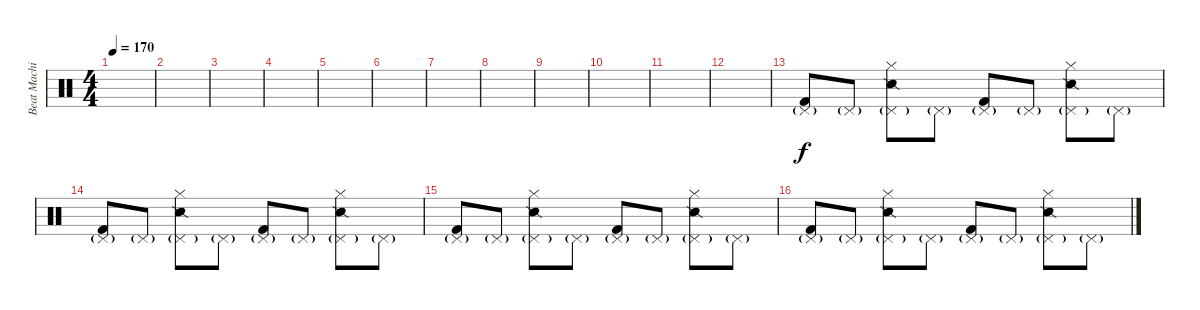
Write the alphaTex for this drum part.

\track ("Beat Machine" "Beat Machi") {instrument percussion}
\staff {score}
\articulation defaults
\ts (4 4)
\tempo 170
\clef neutral
\ks c
|
|
|
|
|
|
|
|
|
|
|
|
("Pedal Hi-Hat (hit)"{g} "Kick (hit) 2").8 "Pedal Hi-Hat (hit)"{g}.8 ("Pedal Hi-Hat (hit)"{g} "Snare (side stick) 2" "Hi-Hat (closed)").8 "Pedal Hi-Hat (hit)"{g}.8 ("Pedal Hi-Hat (hit)"{g} "Kick (hit) 2").8 "Pedal Hi-Hat (hit)"{g}.8 ("Pedal Hi-Hat (hit)"{g} "Snare (side stick) 2" "Hi-Hat (closed)").8 "Pedal Hi-Hat (hit)"{g}.8 |
("Pedal Hi-Hat (hit)"{g} "Kick (hit) 2").8 "Pedal Hi-Hat (hit)"{g}.8 ("Pedal Hi-Hat (hit)"{g} "Snare (side stick) 2" "Hi-Hat (closed)").8 "Pedal Hi-Hat (hit)"{g}.8 ("Pedal Hi-Hat (hit)"{g} "Kick (hit) 2").8 "Pedal Hi-Hat (hit)"{g}.8 ("Pedal Hi-Hat (hit)"{g} "Snare (side stick) 2" "Hi-Hat (closed)").8 "Pedal Hi-Hat (hit)"{g}.8 |
("Pedal Hi-Hat (hit)"{g} "Kick (hit) 2").8 "Pedal Hi-Hat (hit)"{g}.8 ("Pedal Hi-Hat (hit)"{g} "Snare (side stick) 2" "Hi-Hat (closed)").8 "Pedal Hi-Hat (hit)"{g}.8 ("Pedal Hi-Hat (hit)"{g} "Kick (hit) 2").8 "Pedal Hi-Hat (hit)"{g}.8 ("Pedal Hi-Hat (hit)"{g} "Snare (side stick) 2" "Hi-Hat (closed)").8 "Pedal Hi-Hat (hit)"{g}.8 |
("Pedal Hi-Hat (hit)"{g} "Kick (hit) 2").8 "Pedal Hi-Hat (hit)"{g}.8 ("Pedal Hi-Hat (hit)"{g} "Snare (side stick) 2" "Hi-Hat (closed)").8 "Pedal Hi-Hat (hit)"{g}.8 ("Pedal Hi-Hat (hit)"{g} "Kick (hit) 2").8 "Pedal Hi-Hat (hit)"{g}.8 ("Pedal Hi-Hat (hit)"{g} "Snare (side stick) 2" "Hi-Hat (closed)").8 "Pedal Hi-Hat (hit)"{g}.8
